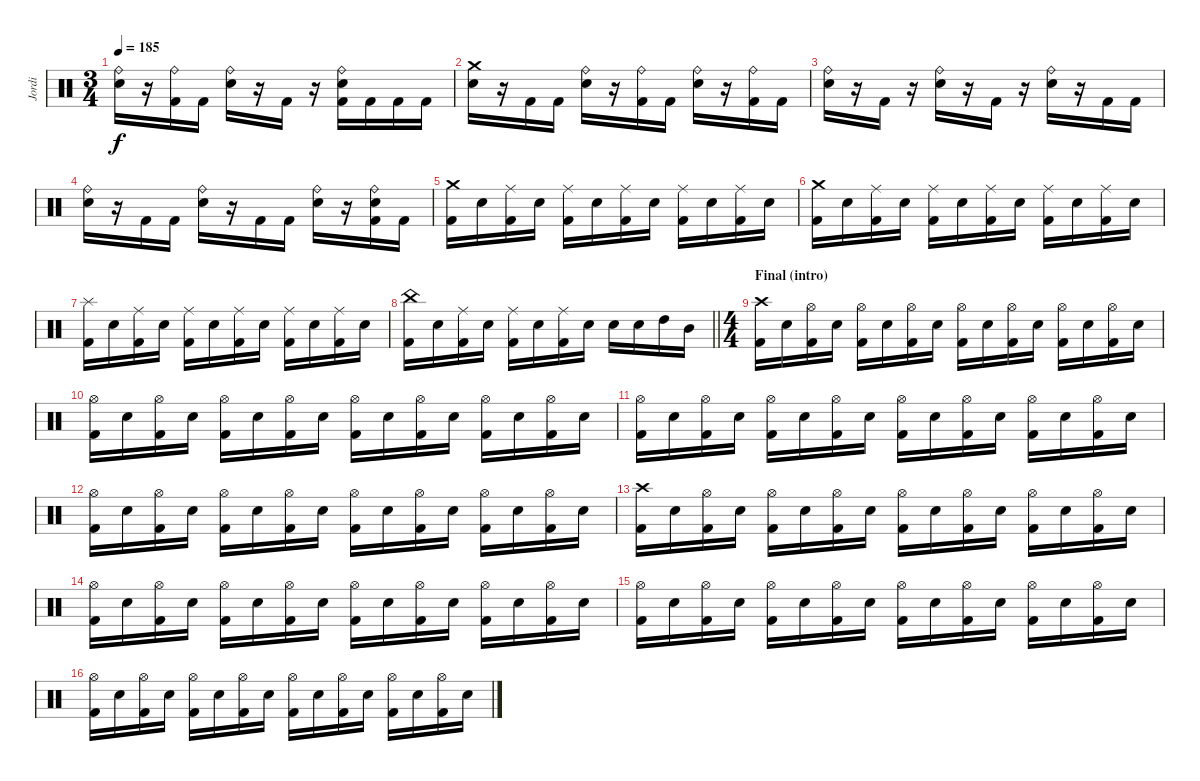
\track ("Jordi" "Jordi") {instrument percussion}
\staff {score}
\articulation defaults
\ts (3 4)
\tempo 185
\clef neutral
\ks c
("Ride (bell)" "Snare (hit) 2").16{dy f} r.16 ("Ride (bell)" "Kick (hit) 2").16 "Kick (hit) 2".16 ("Ride (bell)" "Snare (hit) 2").16 r.16 "Kick (hit) 2".16 r.16 ("Ride (bell)" "Snare (hit) 2" "Kick (hit) 2").16 "Kick (hit) 2".16 "Kick (hit) 2".16 "Kick (hit) 2".16 |
("Crash medium (hit)" "Snare (hit) 2").16 r.16 "Kick (hit) 2".16 "Kick (hit) 2".16 ("Ride (bell)" "Snare (hit) 2").16 r.16 ("Ride (bell)" "Kick (hit) 2").16 "Kick (hit) 2".16 ("Ride (bell)" "Snare (hit) 2").16 r.16 ("Ride (bell)" "Kick (hit) 2").16 "Kick (hit) 2".16 |
("Ride (bell)" "Snare (hit) 2").16 r.16 "Kick (hit) 2".16 r.16 ("Ride (bell)" "Snare (hit) 2").16 r.16 "Kick (hit) 2".16 r.16 ("Ride (bell)" "Snare (hit) 2").16 r.16 "Kick (hit) 2".16 "Kick (hit) 2".16 |
("Ride (bell)" "Snare (hit) 2").16 r.16 "Kick (hit) 2".16 "Kick (hit) 2".16 ("Ride (bell)" "Snare (hit) 2").16 r.16 "Kick (hit) 2".16 "Kick (hit) 2".16 ("Ride (bell)" "Snare (hit) 2").16 r.16 ("Ride (bell)" "Snare (hit) 2" "Kick (hit) 2").16 "Kick (hit) 2".16 |
("Crash medium (hit)" "Kick (hit) 2").16 "Snare (hit) 2".16 ("Ride (middle)" "Kick (hit) 2").16 "Snare (hit) 2".16 ("Ride (middle)" "Kick (hit) 2").16 "Snare (hit) 2".16 ("Ride (middle)" "Kick (hit) 2").16 "Snare (hit) 2".16 ("Ride (middle)" "Kick (hit) 2").16 "Snare (hit) 2".16 ("Ride (middle)" "Kick (hit) 2").16 "Snare (hit) 2".16 |
("Crash medium (hit)" "Kick (hit) 2").16 "Snare (hit) 2".16 ("Ride (middle)" "Kick (hit) 2").16 "Snare (hit) 2".16 ("Ride (middle)" "Kick (hit) 2").16 "Snare (hit) 2".16 ("Ride (middle)" "Kick (hit) 2").16 "Snare (hit) 2".16 ("Ride (middle)" "Kick (hit) 2").16 "Snare (hit) 2".16 ("Ride (middle)" "Kick (hit) 2").16 "Snare (hit) 2".16 |
("Splash (hit)" "Kick (hit) 2").16 "Snare (hit) 2".16 ("Ride (middle)" "Kick (hit) 2").16 "Snare (hit) 2".16 ("Ride (middle)" "Kick (hit) 2").16 "Snare (hit) 2".16 ("Ride (middle)" "Kick (hit) 2").16 "Snare (hit) 2".16 ("Ride (middle)" "Kick (hit) 2").16 "Snare (hit) 2".16 ("Ride (middle)" "Kick (hit) 2").16 "Snare (hit) 2".16 |
\barLineRight lightlight
("China (hit)" "Kick (hit) 2").16 "Snare (hit) 2".16 ("Ride (middle)" "Kick (hit) 2").16 "Snare (hit) 2".16 ("Ride (middle)" "Kick (hit) 2").16 "Snare (hit) 2".16 ("Ride (middle)" "Kick (hit) 2").16 "Snare (hit) 2".16 "Snare (hit) 2".16 "Snare (hit) 2".16 "High Tom (hit)".16 "Mid Tom (hit)".16 |
\ts (4 4)
\section ("" "Final (intro)")
("Crash high (hit)" "Kick (hit) 2").16 "Snare (hit) 2".16 ("Hi-Hat (open)" "Kick (hit) 2").16 "Snare (hit) 2".16 ("Hi-Hat (open)" "Kick (hit) 2").16 "Snare (hit) 2".16 ("Hi-Hat (open)" "Kick (hit) 2").16 "Snare (hit) 2".16 ("Hi-Hat (open)" "Kick (hit) 2").16 "Snare (hit) 2".16 ("Hi-Hat (open)" "Kick (hit) 2").16 "Snare (hit) 2".16 ("Hi-Hat (open)" "Kick (hit) 2").16 "Snare (hit) 2".16 ("Hi-Hat (open)" "Kick (hit) 2").16 "Snare (hit) 2".16 |
("Hi-Hat (open)" "Kick (hit) 2").16 "Snare (hit) 2".16 ("Hi-Hat (open)" "Kick (hit) 2").16 "Snare (hit) 2".16 ("Hi-Hat (open)" "Kick (hit) 2").16 "Snare (hit) 2".16 ("Hi-Hat (open)" "Kick (hit) 2").16 "Snare (hit) 2".16 ("Hi-Hat (open)" "Kick (hit) 2").16 "Snare (hit) 2".16 ("Hi-Hat (open)" "Kick (hit) 2").16 "Snare (hit) 2".16 ("Hi-Hat (open)" "Kick (hit) 2").16 "Snare (hit) 2".16 ("Hi-Hat (open)" "Kick (hit) 2").16 "Snare (hit) 2".16 |
("Hi-Hat (open)" "Kick (hit) 2").16 "Snare (hit) 2".16 ("Hi-Hat (open)" "Kick (hit) 2").16 "Snare (hit) 2".16 ("Hi-Hat (open)" "Kick (hit) 2").16 "Snare (hit) 2".16 ("Hi-Hat (open)" "Kick (hit) 2").16 "Snare (hit) 2".16 ("Hi-Hat (open)" "Kick (hit) 2").16 "Snare (hit) 2".16 ("Hi-Hat (open)" "Kick (hit) 2").16 "Snare (hit) 2".16 ("Hi-Hat (open)" "Kick (hit) 2").16 "Snare (hit) 2".16 ("Hi-Hat (open)" "Kick (hit) 2").16 "Snare (hit) 2".16 |
("Hi-Hat (open)" "Kick (hit) 2").16 "Snare (hit) 2".16 ("Hi-Hat (open)" "Kick (hit) 2").16 "Snare (hit) 2".16 ("Hi-Hat (open)" "Kick (hit) 2").16 "Snare (hit) 2".16 ("Hi-Hat (open)" "Kick (hit) 2").16 "Snare (hit) 2".16 ("Hi-Hat (open)" "Kick (hit) 2").16 "Snare (hit) 2".16 ("Hi-Hat (open)" "Kick (hit) 2").16 "Snare (hit) 2".16 ("Hi-Hat (open)" "Kick (hit) 2").16 "Snare (hit) 2".16 ("Hi-Hat (open)" "Kick (hit) 2").16 "Snare (hit) 2".16 |
("Crash high (hit)" "Kick (hit) 2").16 "Snare (hit) 2".16 ("Hi-Hat (open)" "Kick (hit) 2").16 "Snare (hit) 2".16 ("Hi-Hat (open)" "Kick (hit) 2").16 "Snare (hit) 2".16 ("Hi-Hat (open)" "Kick (hit) 2").16 "Snare (hit) 2".16 ("Hi-Hat (open)" "Kick (hit) 2").16 "Snare (hit) 2".16 ("Hi-Hat (open)" "Kick (hit) 2").16 "Snare (hit) 2".16 ("Hi-Hat (open)" "Kick (hit) 2").16 "Snare (hit) 2".16 ("Hi-Hat (open)" "Kick (hit) 2").16 "Snare (hit) 2".16 |
("Hi-Hat (open)" "Kick (hit) 2").16 "Snare (hit) 2".16 ("Hi-Hat (open)" "Kick (hit) 2").16 "Snare (hit) 2".16 ("Hi-Hat (open)" "Kick (hit) 2").16 "Snare (hit) 2".16 ("Hi-Hat (open)" "Kick (hit) 2").16 "Snare (hit) 2".16 ("Hi-Hat (open)" "Kick (hit) 2").16 "Snare (hit) 2".16 ("Hi-Hat (open)" "Kick (hit) 2").16 "Snare (hit) 2".16 ("Hi-Hat (open)" "Kick (hit) 2").16 "Snare (hit) 2".16 ("Hi-Hat (open)" "Kick (hit) 2").16 "Snare (hit) 2".16 |
("Hi-Hat (open)" "Kick (hit) 2").16 "Snare (hit) 2".16 ("Hi-Hat (open)" "Kick (hit) 2").16 "Snare (hit) 2".16 ("Hi-Hat (open)" "Kick (hit) 2").16 "Snare (hit) 2".16 ("Hi-Hat (open)" "Kick (hit) 2").16 "Snare (hit) 2".16 ("Hi-Hat (open)" "Kick (hit) 2").16 "Snare (hit) 2".16 ("Hi-Hat (open)" "Kick (hit) 2").16 "Snare (hit) 2".16 ("Hi-Hat (open)" "Kick (hit) 2").16 "Snare (hit) 2".16 ("Hi-Hat (open)" "Kick (hit) 2").16 "Snare (hit) 2".16 |
("Hi-Hat (open)" "Kick (hit) 2").16 "Snare (hit) 2".16 ("Hi-Hat (open)" "Kick (hit) 2").16 "Snare (hit) 2".16 ("Hi-Hat (open)" "Kick (hit) 2").16 "Snare (hit) 2".16 ("Hi-Hat (open)" "Kick (hit) 2").16 "Snare (hit) 2".16 ("Hi-Hat (open)" "Kick (hit) 2").16 "Snare (hit) 2".16 ("Hi-Hat (open)" "Kick (hit) 2").16 "Snare (hit) 2".16 ("Hi-Hat (open)" "Kick (hit) 2").16 "Snare (hit) 2".16 ("Hi-Hat (open)" "Kick (hit) 2").16 "Snare (hit) 2".16
